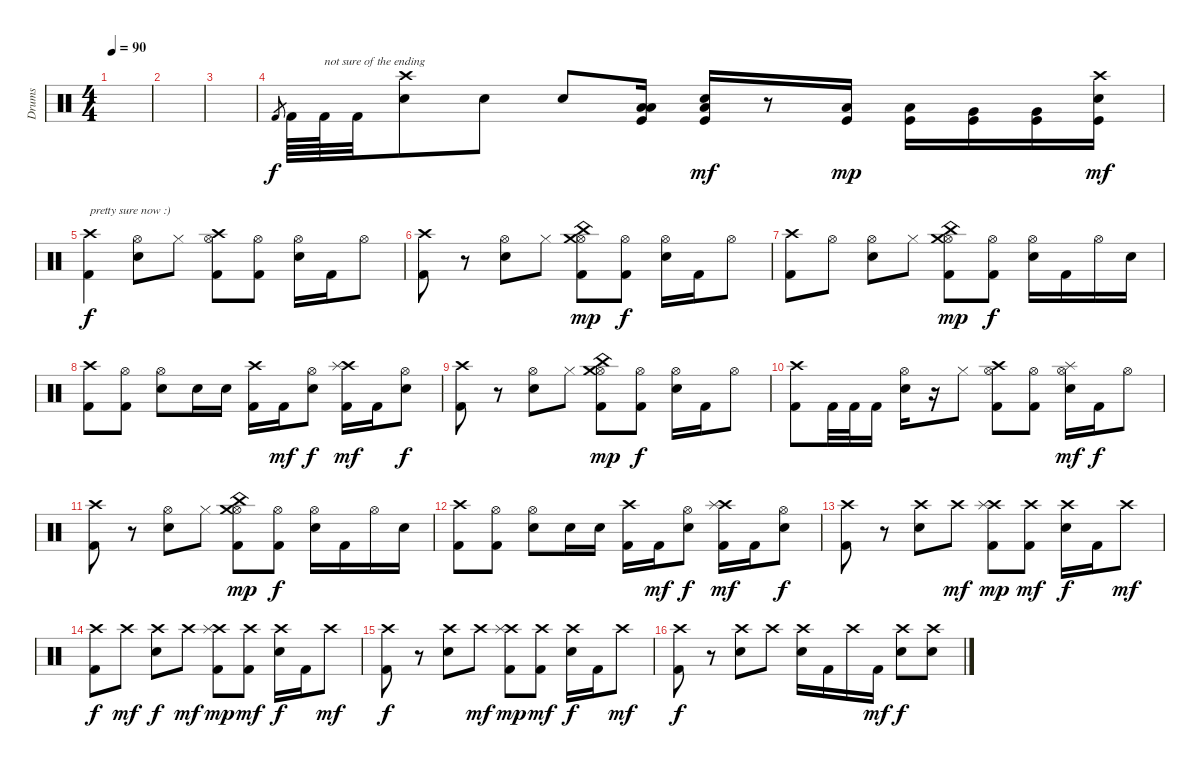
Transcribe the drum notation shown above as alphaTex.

\track ("Drums" "Drums") {instrument percussion}
\staff {score}
\articulation defaults
\ts (4 4)
\tempo 90
\clef neutral
\ks c
|
|
|
"Kick (hit) 2".8{gr} "Kick (hit) 2".64{dy f} "Kick (hit) 2".64{txt "not sure of the ending"} "Kick (hit) 2".32 ("Crash high (hit)" "Electric Snare (hit)").8 "Electric Snare (hit)".8 "Electric Snare (hit)".8 ("Low Tom (hit)" "Low Floor Tom (hit)" "Kick (hit)").16 ("Low Tom (hit)" "Electric Snare (hit)" "Kick (hit)").16{dy mf} r.8 ("Low Tom (hit)" "Kick (hit)").16{dy mp} ("Low Tom (hit)" "Kick (hit)").16 ("Very Low Tom (hit)" "Kick (hit)").16 ("Very Low Tom (hit)" "Kick (hit)").16 ("Crash high (hit)" "Electric Snare (hit)" "Kick (hit)").16{dy mf} |
("Crash high (hit)" "Kick (hit) 2").4{txt "pretty sure now :)" dy f} ("Hi-Hat (open)" "Electric Snare (hit)").8 "Hi-Hat (closed)".8 ("Hi-Hat (open)" "Crash high (hit)" "Kick (hit) 2").8 ("Hi-Hat (open)" "Kick (hit) 2").8 ("Hi-Hat (open)" "Electric Snare (hit)").16 "Kick (hit) 2".16 "Hi-Hat (open)".8 |
("Crash high (hit)" "Kick (hit) 2").8 r.8 ("Hi-Hat (open)" "Electric Snare (hit)").8 "Hi-Hat (closed)".8 ("Hi-Hat (open)" "Crash medium (hit)" "Kick (hit) 2" "China (hit)").8{dy mp} ("Hi-Hat (open)" "Kick (hit) 2").8{dy f} ("Hi-Hat (open)" "Electric Snare (hit)").16 "Kick (hit) 2".16 "Hi-Hat (open)".8 |
("Crash high (hit)" "Kick (hit) 2").8 "Hi-Hat (open)".8 ("Hi-Hat (open)" "Electric Snare (hit)").8 "Hi-Hat (closed)".8 ("Hi-Hat (open)" "Crash medium (hit)" "Kick (hit) 2" "China (hit)").8{dy mp} ("Hi-Hat (open)" "Kick (hit) 2").8{dy f} ("Hi-Hat (open)" "Electric Snare (hit)").16 "Kick (hit) 2".16 "Hi-Hat (open)".16 "Electric Snare (hit)".16 |
("Crash high (hit)" "Kick (hit) 2").8 ("Hi-Hat (open)" "Kick (hit) 2").8 ("Hi-Hat (open)" "Electric Snare (hit)").8 "Electric Snare (hit)".16 "Electric Snare (hit)".16 ("Crash high (hit)" "Kick (hit) 2").16 "Kick (hit) 2".16{dy mf} ("Hi-Hat (open)" "Electric Snare (hit)").8{dy f} ("Crash high (hit)" "Splash (hit)" "Kick (hit) 2").16{dy mf} "Kick (hit) 2".16 ("Hi-Hat (open)" "Electric Snare (hit)").8{dy f} |
("Crash high (hit)" "Kick (hit) 2").8 r.8 ("Hi-Hat (open)" "Electric Snare (hit)").8 "Hi-Hat (closed)".8 ("Hi-Hat (open)" "Crash medium (hit)" "Kick (hit) 2" "China (hit)").8{dy mp} ("Hi-Hat (open)" "Kick (hit) 2").8{dy f} ("Hi-Hat (open)" "Electric Snare (hit)").16 "Kick (hit) 2".16 "Hi-Hat (open)".8 |
("Crash high (hit)" "Kick (hit) 2").8 "Kick (hit) 2".32 "Kick (hit) 2".32 "Kick (hit) 2".16 ("Hi-Hat (open)" "Electric Snare (hit)").16 r.16 "Hi-Hat (closed)".8 ("Hi-Hat (open)" "Crash high (hit)" "Kick (hit) 2").8 ("Hi-Hat (open)" "Kick (hit) 2").8 ("Hi-Hat (open)" "Splash (hit)" "Electric Snare (hit)").16{dy mf} "Kick (hit) 2".16{dy f} "Hi-Hat (open)".8 |
("Crash high (hit)" "Kick (hit) 2").8 r.8 ("Hi-Hat (open)" "Electric Snare (hit)").8 "Hi-Hat (closed)".8 ("Hi-Hat (open)" "Crash medium (hit)" "Kick (hit) 2" "China (hit)").8{dy mp} ("Hi-Hat (open)" "Kick (hit) 2").8{dy f} ("Hi-Hat (open)" "Electric Snare (hit)").16 "Kick (hit) 2".16 "Hi-Hat (open)".16 "Electric Snare (hit)".16 |
("Crash high (hit)" "Kick (hit) 2").8 ("Hi-Hat (open)" "Kick (hit) 2").8 ("Hi-Hat (open)" "Electric Snare (hit)").8 "Electric Snare (hit)".16 "Electric Snare (hit)".16 ("Crash high (hit)" "Kick (hit) 2").16 "Kick (hit) 2".16{dy mf} ("Hi-Hat (open)" "Electric Snare (hit)").8{dy f} ("Crash high (hit)" "Splash (hit)" "Kick (hit) 2").16{dy mf} "Kick (hit) 2".16 ("Hi-Hat (open)" "Electric Snare (hit)").8{dy f} |
("Crash high (hit)" "Kick (hit) 2").8 r.8 ("Crash high (hit)" "Electric Snare (hit)").8 "Crash high (hit)".8{dy mf} ("Crash high (hit)" "Kick (hit) 2" "Splash (hit)").8{dy mp} ("Crash high (hit)" "Kick (hit) 2").8{dy mf} ("Crash high (hit)" "Electric Snare (hit)").16{dy f} "Kick (hit) 2".16 "Crash high (hit)".8{dy mf} |
("Crash high (hit)" "Kick (hit) 2").8{dy f} "Crash high (hit)".8{dy mf} ("Crash high (hit)" "Electric Snare (hit)").8{dy f} "Crash high (hit)".8{dy mf} ("Crash high (hit)" "Kick (hit) 2" "Splash (hit)").8{dy mp} ("Crash high (hit)" "Kick (hit) 2").8{dy mf} ("Crash high (hit)" "Electric Snare (hit)").16{dy f} "Kick (hit) 2".16 "Crash high (hit)".8{dy mf} |
("Crash high (hit)" "Kick (hit) 2").8{dy f} r.8 ("Crash high (hit)" "Electric Snare (hit)").8 "Crash high (hit)".8{dy mf} ("Crash high (hit)" "Kick (hit) 2" "Splash (hit)").8{dy mp} ("Crash high (hit)" "Kick (hit) 2").8{dy mf} ("Crash high (hit)" "Electric Snare (hit)").16{dy f} "Kick (hit) 2".16 "Crash high (hit)".8{dy mf} |
("Crash high (hit)" "Kick (hit) 2").8{dy f} r.8 ("Crash high (hit)" "Electric Snare (hit)").8 "Crash high (hit)".8 ("Crash high (hit)" "Electric Snare (hit)").16 "Kick (hit) 2".16 "Crash high (hit)".16 "Kick (hit) 2".16{dy mf} ("Crash high (hit)" "Electric Snare (hit)").8{dy f} ("Crash high (hit)" "Electric Snare (hit)").8
